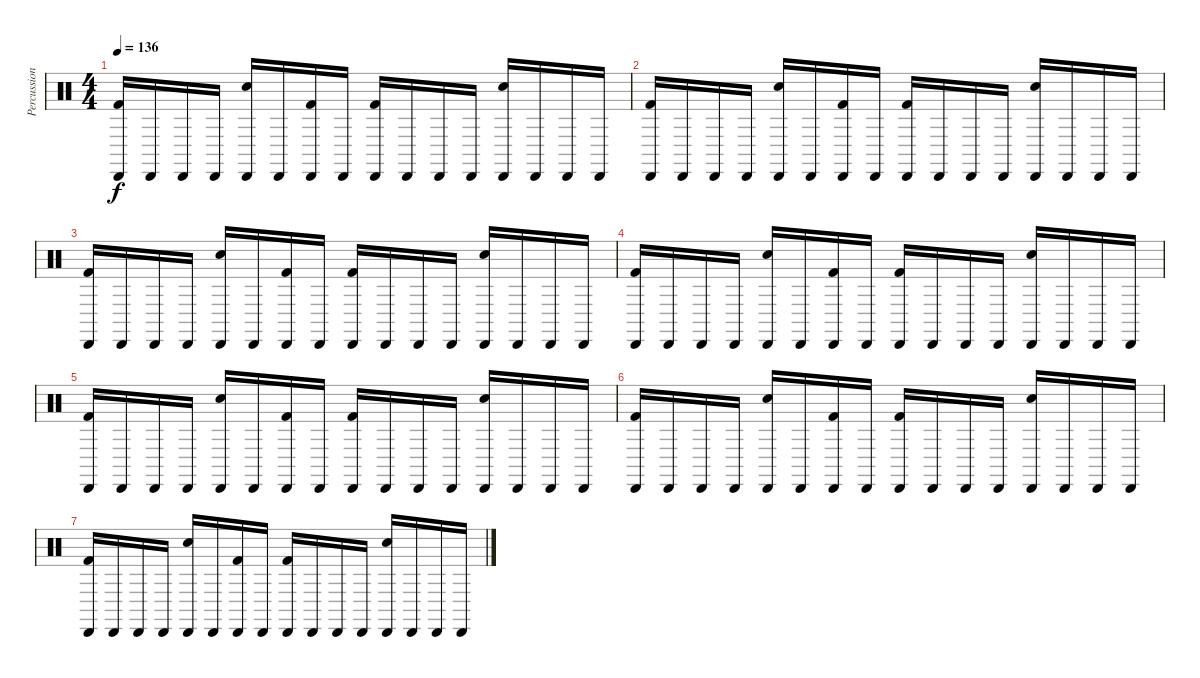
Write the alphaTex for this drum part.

\track ("Percussion" "Percussion") {instrument percussion}
\staff {score}
\articulation defaults
\ts (4 4)
\tempo 136
\clef neutral
\ks c
("Cabasa (hit)" "Kick (hit) 2").16{dy f} "Cabasa (hit)".16 "Cabasa (hit)".16 "Cabasa (hit)".16 ("Cabasa (hit)" "Snare (hit) 2").16 "Cabasa (hit)".16 ("Cabasa (hit)" "Kick (hit) 2").16 "Cabasa (hit)".16 ("Cabasa (hit)" "Kick (hit) 2").16 "Cabasa (hit)".16 "Cabasa (hit)".16 "Cabasa (hit)".16 ("Cabasa (hit)" "Snare (hit) 2").16 "Cabasa (hit)".16 "Cabasa (hit)".16 "Cabasa (hit)".16 |
("Cabasa (hit)" "Kick (hit) 2").16 "Cabasa (hit)".16 "Cabasa (hit)".16 "Cabasa (hit)".16 ("Cabasa (hit)" "Snare (hit) 2").16 "Cabasa (hit)".16 ("Cabasa (hit)" "Kick (hit) 2").16 "Cabasa (hit)".16 ("Cabasa (hit)" "Kick (hit) 2").16 "Cabasa (hit)".16 "Cabasa (hit)".16 "Cabasa (hit)".16 ("Cabasa (hit)" "Snare (hit) 2").16 "Cabasa (hit)".16 "Cabasa (hit)".16 "Cabasa (hit)".16 |
("Cabasa (hit)" "Kick (hit) 2").16 "Cabasa (hit)".16 "Cabasa (hit)".16 "Cabasa (hit)".16 ("Cabasa (hit)" "Snare (hit) 2").16 "Cabasa (hit)".16 ("Cabasa (hit)" "Kick (hit) 2").16 "Cabasa (hit)".16 ("Cabasa (hit)" "Kick (hit) 2").16 "Cabasa (hit)".16 "Cabasa (hit)".16 "Cabasa (hit)".16 ("Cabasa (hit)" "Snare (hit) 2").16 "Cabasa (hit)".16 "Cabasa (hit)".16 "Cabasa (hit)".16 |
("Cabasa (hit)" "Kick (hit) 2").16 "Cabasa (hit)".16 "Cabasa (hit)".16 "Cabasa (hit)".16 ("Cabasa (hit)" "Snare (hit) 2").16 "Cabasa (hit)".16 ("Cabasa (hit)" "Kick (hit) 2").16 "Cabasa (hit)".16 ("Cabasa (hit)" "Kick (hit) 2").16 "Cabasa (hit)".16 "Cabasa (hit)".16 "Cabasa (hit)".16 ("Cabasa (hit)" "Snare (hit) 2").16 "Cabasa (hit)".16 "Cabasa (hit)".16 "Cabasa (hit)".16 |
("Cabasa (hit)" "Kick (hit) 2").16 "Cabasa (hit)".16 "Cabasa (hit)".16 "Cabasa (hit)".16 ("Cabasa (hit)" "Snare (hit) 2").16 "Cabasa (hit)".16 ("Cabasa (hit)" "Kick (hit) 2").16 "Cabasa (hit)".16 ("Cabasa (hit)" "Kick (hit) 2").16 "Cabasa (hit)".16 "Cabasa (hit)".16 "Cabasa (hit)".16 ("Cabasa (hit)" "Snare (hit) 2").16 "Cabasa (hit)".16 "Cabasa (hit)".16 "Cabasa (hit)".16 |
("Cabasa (hit)" "Kick (hit) 2").16 "Cabasa (hit)".16 "Cabasa (hit)".16 "Cabasa (hit)".16 ("Cabasa (hit)" "Snare (hit) 2").16 "Cabasa (hit)".16 ("Cabasa (hit)" "Kick (hit) 2").16 "Cabasa (hit)".16 ("Cabasa (hit)" "Kick (hit) 2").16 "Cabasa (hit)".16 "Cabasa (hit)".16 "Cabasa (hit)".16 ("Cabasa (hit)" "Snare (hit) 2").16 "Cabasa (hit)".16 "Cabasa (hit)".16 "Cabasa (hit)".16 |
("Cabasa (hit)" "Kick (hit) 2").16 "Cabasa (hit)".16 "Cabasa (hit)".16 "Cabasa (hit)".16 ("Cabasa (hit)" "Snare (hit) 2").16 "Cabasa (hit)".16 ("Cabasa (hit)" "Kick (hit) 2").16 "Cabasa (hit)".16 ("Cabasa (hit)" "Kick (hit) 2").16 "Cabasa (hit)".16 "Cabasa (hit)".16 "Cabasa (hit)".16 ("Cabasa (hit)" "Snare (hit) 2").16 "Cabasa (hit)".16 "Cabasa (hit)".16 "Cabasa (hit)".16
